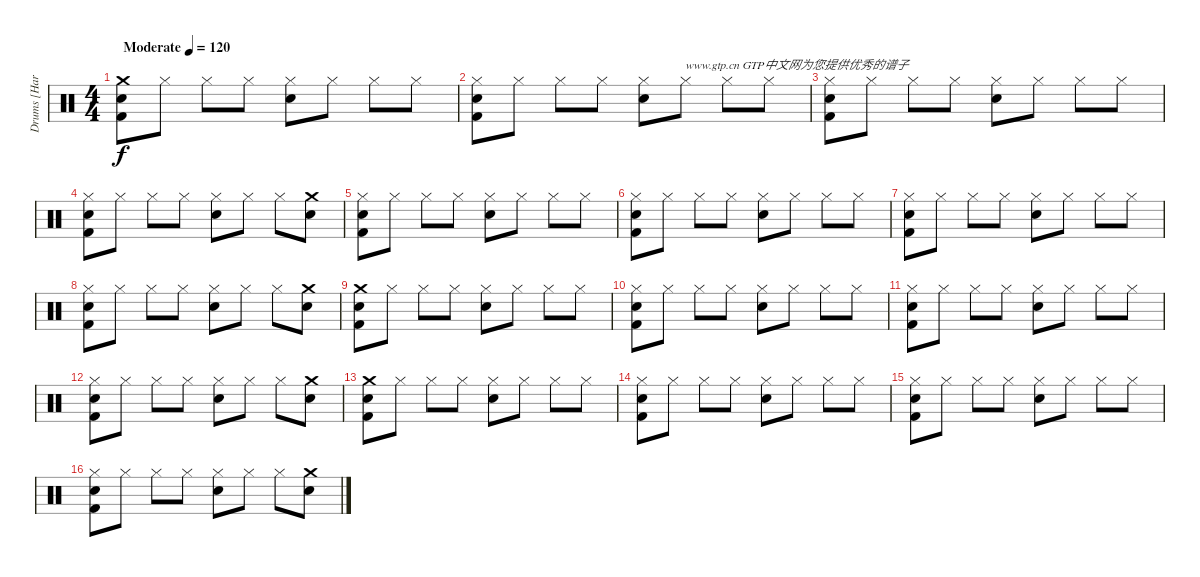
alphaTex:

\track ("Drums [Harry]" "Drums [Har") {instrument percussion}
\staff {score}
\articulation defaults
\ts (4 4)
\tempo (120 "Moderate")
\clef neutral
\ks c
("Crash medium (hit)" "Snare (hit) 2" "Kick (hit) 2").8{dy f} "Hi-Hat (closed)".8 "Hi-Hat (closed)".8 "Hi-Hat (closed)".8 ("Snare (hit) 2" "Hi-Hat (closed)").8 "Hi-Hat (closed)".8 "Hi-Hat (closed)".8 "Hi-Hat (closed)".8 |
("Snare (hit) 2" "Hi-Hat (closed)" "Kick (hit) 2").8 "Hi-Hat (closed)".8 "Hi-Hat (closed)".8 "Hi-Hat (closed)".8 ("Snare (hit) 2" "Hi-Hat (closed)").8 "Hi-Hat (closed)".8{txt "www.gtp.cn GTP中文网为您提供优秀的谱子"} "Hi-Hat (closed)".8 "Hi-Hat (closed)".8 |
("Snare (hit) 2" "Hi-Hat (closed)" "Kick (hit) 2").8 "Hi-Hat (closed)".8 "Hi-Hat (closed)".8 "Hi-Hat (closed)".8 ("Snare (hit) 2" "Hi-Hat (closed)").8 "Hi-Hat (closed)".8 "Hi-Hat (closed)".8 "Hi-Hat (closed)".8 |
("Snare (hit) 2" "Hi-Hat (closed)" "Kick (hit) 2").8 "Hi-Hat (closed)".8 "Hi-Hat (closed)".8 "Hi-Hat (closed)".8 ("Snare (hit) 2" "Hi-Hat (closed)").8 "Hi-Hat (closed)".8 "Hi-Hat (closed)".8 ("Crash medium (hit)" "Snare (hit) 2").8 |
("Snare (hit) 2" "Hi-Hat (closed)" "Kick (hit) 2").8 "Hi-Hat (closed)".8 "Hi-Hat (closed)".8 "Hi-Hat (closed)".8 ("Snare (hit) 2" "Hi-Hat (closed)").8 "Hi-Hat (closed)".8 "Hi-Hat (closed)".8 "Hi-Hat (closed)".8 |
("Snare (hit) 2" "Hi-Hat (closed)" "Kick (hit) 2").8 "Hi-Hat (closed)".8 "Hi-Hat (closed)".8 "Hi-Hat (closed)".8 ("Snare (hit) 2" "Hi-Hat (closed)").8 "Hi-Hat (closed)".8 "Hi-Hat (closed)".8 "Hi-Hat (closed)".8 |
("Snare (hit) 2" "Hi-Hat (closed)" "Kick (hit) 2").8 "Hi-Hat (closed)".8 "Hi-Hat (closed)".8 "Hi-Hat (closed)".8 ("Snare (hit) 2" "Hi-Hat (closed)").8 "Hi-Hat (closed)".8 "Hi-Hat (closed)".8 "Hi-Hat (closed)".8 |
("Snare (hit) 2" "Hi-Hat (closed)" "Kick (hit) 2").8 "Hi-Hat (closed)".8 "Hi-Hat (closed)".8 "Hi-Hat (closed)".8 ("Snare (hit) 2" "Hi-Hat (closed)").8 "Hi-Hat (closed)".8 "Hi-Hat (closed)".8 ("Crash medium (hit)" "Snare (hit) 2").8 |
("Crash medium (hit)" "Snare (hit) 2" "Kick (hit) 2").8 "Hi-Hat (closed)".8 "Hi-Hat (closed)".8 "Hi-Hat (closed)".8 ("Snare (hit) 2" "Hi-Hat (closed)").8 "Hi-Hat (closed)".8 "Hi-Hat (closed)".8 "Hi-Hat (closed)".8 |
("Snare (hit) 2" "Hi-Hat (closed)" "Kick (hit) 2").8 "Hi-Hat (closed)".8 "Hi-Hat (closed)".8 "Hi-Hat (closed)".8 ("Snare (hit) 2" "Hi-Hat (closed)").8 "Hi-Hat (closed)".8 "Hi-Hat (closed)".8 "Hi-Hat (closed)".8 |
("Snare (hit) 2" "Hi-Hat (closed)" "Kick (hit) 2").8 "Hi-Hat (closed)".8 "Hi-Hat (closed)".8 "Hi-Hat (closed)".8 ("Snare (hit) 2" "Hi-Hat (closed)").8 "Hi-Hat (closed)".8 "Hi-Hat (closed)".8 "Hi-Hat (closed)".8 |
("Snare (hit) 2" "Hi-Hat (closed)" "Kick (hit) 2").8 "Hi-Hat (closed)".8 "Hi-Hat (closed)".8 "Hi-Hat (closed)".8 ("Snare (hit) 2" "Hi-Hat (closed)").8 "Hi-Hat (closed)".8 "Hi-Hat (closed)".8 ("Crash medium (hit)" "Snare (hit) 2").8 |
("Crash medium (hit)" "Snare (hit) 2" "Kick (hit) 2").8 "Hi-Hat (closed)".8 "Hi-Hat (closed)".8 "Hi-Hat (closed)".8 ("Snare (hit) 2" "Hi-Hat (closed)").8 "Hi-Hat (closed)".8 "Hi-Hat (closed)".8 "Hi-Hat (closed)".8 |
("Snare (hit) 2" "Hi-Hat (closed)" "Kick (hit) 2").8 "Hi-Hat (closed)".8 "Hi-Hat (closed)".8 "Hi-Hat (closed)".8 ("Snare (hit) 2" "Hi-Hat (closed)").8 "Hi-Hat (closed)".8 "Hi-Hat (closed)".8 "Hi-Hat (closed)".8 |
("Snare (hit) 2" "Hi-Hat (closed)" "Kick (hit) 2").8 "Hi-Hat (closed)".8 "Hi-Hat (closed)".8 "Hi-Hat (closed)".8 ("Snare (hit) 2" "Hi-Hat (closed)").8 "Hi-Hat (closed)".8 "Hi-Hat (closed)".8 "Hi-Hat (closed)".8 |
("Snare (hit) 2" "Hi-Hat (closed)" "Kick (hit) 2").8 "Hi-Hat (closed)".8 "Hi-Hat (closed)".8 "Hi-Hat (closed)".8 ("Snare (hit) 2" "Hi-Hat (closed)").8 "Hi-Hat (closed)".8 "Hi-Hat (closed)".8 ("Crash medium (hit)" "Snare (hit) 2").8
